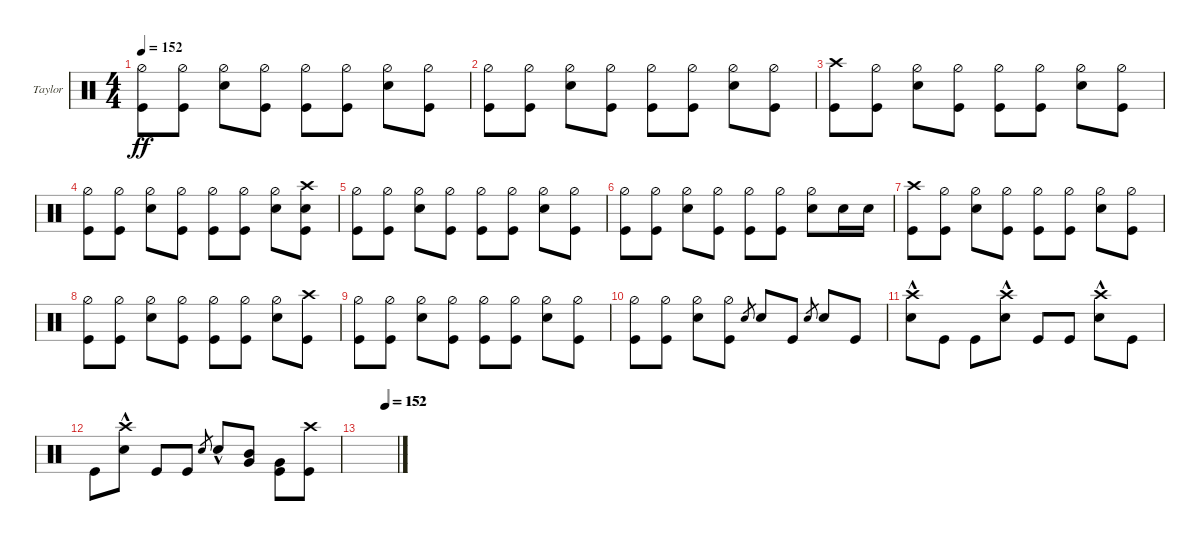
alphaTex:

\defaultSystemsLayout 4
\bracketExtendMode nobrackets
\firstSystemTrackNameOrientation horizontal
\otherSystemsTrackNameOrientation horizontal
\track ("Drums (Taylor Hawkins)" "Taylor") {instrument percussion}
\staff {score}
\articulation defaults
\ts (4 4)
\tempo 152
\clef neutral
\ks c
("Kick (hit)" "Hi-Hat (half)").8{dy ff} ("Hi-Hat (half)" "Kick (hit)").8 ("Hi-Hat (half)" "Snare (hit) 2").8 ("Hi-Hat (half)" "Kick (hit)").8 ("Hi-Hat (half)" "Kick (hit)").8 ("Hi-Hat (half)" "Kick (hit)").8 ("Hi-Hat (half)" "Snare (hit) 2").8 ("Hi-Hat (half)" "Kick (hit)").8 |
("Kick (hit)" "Hi-Hat (half)").8 ("Hi-Hat (half)" "Kick (hit)").8 ("Hi-Hat (half)" "Snare (hit) 2").8 ("Hi-Hat (half)" "Kick (hit)").8 ("Hi-Hat (half)" "Kick (hit)").8 ("Hi-Hat (half)" "Kick (hit)").8 ("Hi-Hat (half)" "Snare (hit) 2").8 ("Hi-Hat (half)" "Kick (hit)").8 |
("Crash high (hit)" "Kick (hit)").8 ("Hi-Hat (half)" "Kick (hit)").8 ("Hi-Hat (half)" "Snare (hit) 2").8 ("Hi-Hat (half)" "Kick (hit)").8 ("Hi-Hat (half)" "Kick (hit)").8 ("Hi-Hat (half)" "Kick (hit)").8 ("Hi-Hat (half)" "Snare (hit) 2").8 ("Hi-Hat (half)" "Kick (hit)").8 |
("Kick (hit)" "Hi-Hat (half)").8 ("Hi-Hat (half)" "Kick (hit)").8 ("Hi-Hat (half)" "Snare (hit) 2").8 ("Hi-Hat (half)" "Kick (hit)").8 ("Hi-Hat (half)" "Kick (hit)").8 ("Hi-Hat (half)" "Kick (hit)").8 ("Hi-Hat (half)" "Snare (hit) 2").8 ("Kick (hit)" "Crash high (hit)" "Snare (hit) 2").8 |
("Kick (hit)" "Hi-Hat (half)").8 ("Hi-Hat (half)" "Kick (hit)").8 ("Hi-Hat (half)" "Snare (hit) 2").8 ("Hi-Hat (half)" "Kick (hit)").8 ("Hi-Hat (half)" "Kick (hit)").8 ("Hi-Hat (half)" "Kick (hit)").8 ("Hi-Hat (half)" "Snare (hit) 2").8 ("Hi-Hat (half)" "Kick (hit)").8 |
("Kick (hit)" "Hi-Hat (half)").8 ("Hi-Hat (half)" "Kick (hit)").8 ("Hi-Hat (half)" "Snare (hit) 2").8 ("Hi-Hat (half)" "Kick (hit)").8 ("Hi-Hat (half)" "Kick (hit)").8 ("Hi-Hat (half)" "Kick (hit)").8 ("Hi-Hat (half)" "Snare (hit) 2").8 "Snare (hit) 2".16 "Snare (hit) 2".16 |
("Crash high (hit)" "Kick (hit)").8 ("Hi-Hat (half)" "Kick (hit)").8 ("Hi-Hat (half)" "Snare (hit) 2").8 ("Hi-Hat (half)" "Kick (hit)").8 ("Hi-Hat (half)" "Kick (hit)").8 ("Hi-Hat (half)" "Kick (hit)").8 ("Hi-Hat (half)" "Snare (hit) 2").8 ("Hi-Hat (half)" "Kick (hit)").8 |
("Kick (hit)" "Hi-Hat (half)").8 ("Hi-Hat (half)" "Kick (hit)").8 ("Hi-Hat (half)" "Snare (hit) 2").8 ("Hi-Hat (half)" "Kick (hit)").8 ("Hi-Hat (half)" "Kick (hit)").8 ("Hi-Hat (half)" "Kick (hit)").8 ("Hi-Hat (half)" "Snare (hit) 2").8 ("Kick (hit)" "Crash high (hit)").8 |
("Kick (hit)" "Hi-Hat (half)").8 ("Hi-Hat (half)" "Kick (hit)").8 ("Hi-Hat (half)" "Snare (hit) 2").8 ("Hi-Hat (half)" "Kick (hit)").8 ("Hi-Hat (half)" "Kick (hit)").8 ("Hi-Hat (half)" "Kick (hit)").8 ("Hi-Hat (half)" "Snare (hit) 2").8 ("Hi-Hat (half)" "Kick (hit)").8 |
("Kick (hit)" "Hi-Hat (half)").8 ("Hi-Hat (half)" "Kick (hit)").8 ("Hi-Hat (half)" "Snare (hit) 2").8 ("Hi-Hat (half)" "Kick (hit)").8 "Snare (hit) 2".8{gr} "Snare (hit) 2".8 "Kick (hit)".8 "Snare (hit) 2".8{gr} "Snare (hit) 2".8 "Kick (hit)".8 |
("Snare (hit) 2"{hac} "Crash high (hit)").8 "Kick (hit)".8 "Kick (hit)".8 ("Crash high (hit)" "Snare (hit) 2"{hac}).8 "Kick (hit)".8 "Kick (hit)".8 ("Snare (hit) 2"{hac} "Crash high (hit)").8 "Kick (hit)".8 |
"Kick (hit)".8 ("Crash high (hit)" "Snare (hit) 2"{hac}).8 "Kick (hit)".8 "Kick (hit)".8 "Snare (hit) 2".8{gr} "Snare (hit) 2"{hac}.8 ("Mid Tom (hit)" "Very Low Tom (hit)").8 ("Very Low Tom (hit)" "Kick (hit)").8 ("Crash high (hit)" "Kick (hit)").8 |
\tempo (152 0.66875)
\tempo (152 0.7)
